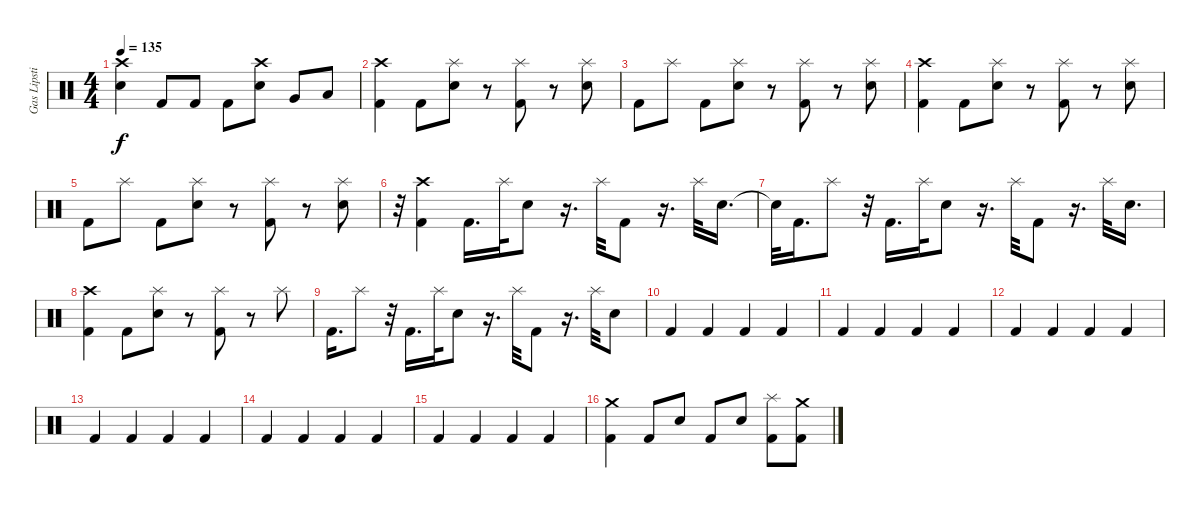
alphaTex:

\track ("Gas Lipstick" "Gas Lipsti") {instrument percussion}
\staff {score}
\articulation defaults
\ts (4 4)
\tempo 135
\clef neutral
\ks c
("Crash high (hit)" "Electric Snare (hit)").4{dy f} "Kick (hit) 2".8 "Kick (hit) 2".8 "Kick (hit) 2".8 ("Crash high (hit)" "Electric Snare (hit)").8 "Very Low Tom (hit)".8 "Low Floor Tom (hit)".8 |
("Crash high (hit)" "Kick (hit) 2").4 "Kick (hit) 2".8 ("Splash (hit)" "Electric Snare (hit)").8 r.8 ("Splash (hit)" "Kick (hit) 2").8 r.8 ("Splash (hit)" "Electric Snare (hit)").8 |
"Kick (hit) 2".8 "Splash (hit)".8 "Kick (hit) 2".8 ("Splash (hit)" "Electric Snare (hit)").8 r.8 ("Splash (hit)" "Kick (hit) 2").8 r.8 ("Splash (hit)" "Electric Snare (hit)").8 |
("Crash high (hit)" "Kick (hit) 2").4 "Kick (hit) 2".8 ("Splash (hit)" "Electric Snare (hit)").8 r.8 ("Splash (hit)" "Kick (hit) 2").8 r.8 ("Splash (hit)" "Electric Snare (hit)").8 |
"Kick (hit) 2".8 "Splash (hit)".8 "Kick (hit) 2".8 ("Splash (hit)" "Electric Snare (hit)").8 r.8 ("Splash (hit)" "Kick (hit) 2").8 r.8 ("Splash (hit)" "Electric Snare (hit)").8 |
r.32 ("Crash high (hit)" "Kick (hit) 2").4 "Kick (hit) 2".16{d} "Splash (hit)".32 "Electric Snare (hit)".8 r.16{d} "Splash (hit)".32 "Kick (hit) 2".8 r.16{d} "Splash (hit)".32 "Electric Snare (hit)".16{d} |
"Snare (hit)"{t}.32 "Kick (hit) 2".16{d} "Splash (hit)".8 r.32 "Kick (hit) 2".16{d} "Splash (hit)".32 "Electric Snare (hit)".8 r.16{d} "Splash (hit)".32 "Kick (hit) 2".8 r.16{d} "Splash (hit)".32 "Electric Snare (hit)".16{d} |
("Crash high (hit)" "Kick (hit) 2").4 "Kick (hit) 2".8 ("Splash (hit)" "Electric Snare (hit)").8 r.8 ("Splash (hit)" "Kick (hit) 2").8 r.8 "Splash (hit)".8 |
"Kick (hit) 2".16{d} "Splash (hit)".8 r.32 "Kick (hit) 2".16{d} "Splash (hit)".32 "Electric Snare (hit)".8 r.16{d} "Splash (hit)".32 "Kick (hit) 2".8 r.16{d} "Splash (hit)".32 "Electric Snare (hit)".8 |
"Kick (hit) 2".4 "Kick (hit) 2".4 "Kick (hit) 2".4 "Kick (hit) 2".4 |
"Kick (hit) 2".4 "Kick (hit) 2".4 "Kick (hit) 2".4 "Kick (hit) 2".4 |
"Kick (hit) 2".4 "Kick (hit) 2".4 "Kick (hit) 2".4 "Kick (hit) 2".4 |
"Kick (hit) 2".4 "Kick (hit) 2".4 "Kick (hit) 2".4 "Kick (hit) 2".4 |
"Kick (hit) 2".4 "Kick (hit) 2".4 "Kick (hit) 2".4 "Kick (hit) 2".4 |
"Kick (hit) 2".4 "Kick (hit) 2".4 "Kick (hit) 2".4 "Kick (hit) 2".4 |
("Crash medium (hit)" "Kick (hit) 2").4 "Kick (hit) 2".8 "Electric Snare (hit)".8 "Kick (hit) 2".8 "Electric Snare (hit)".8 ("Splash (hit)" "Kick (hit) 2").8 ("Crash medium (hit)" "Kick (hit) 2").8
